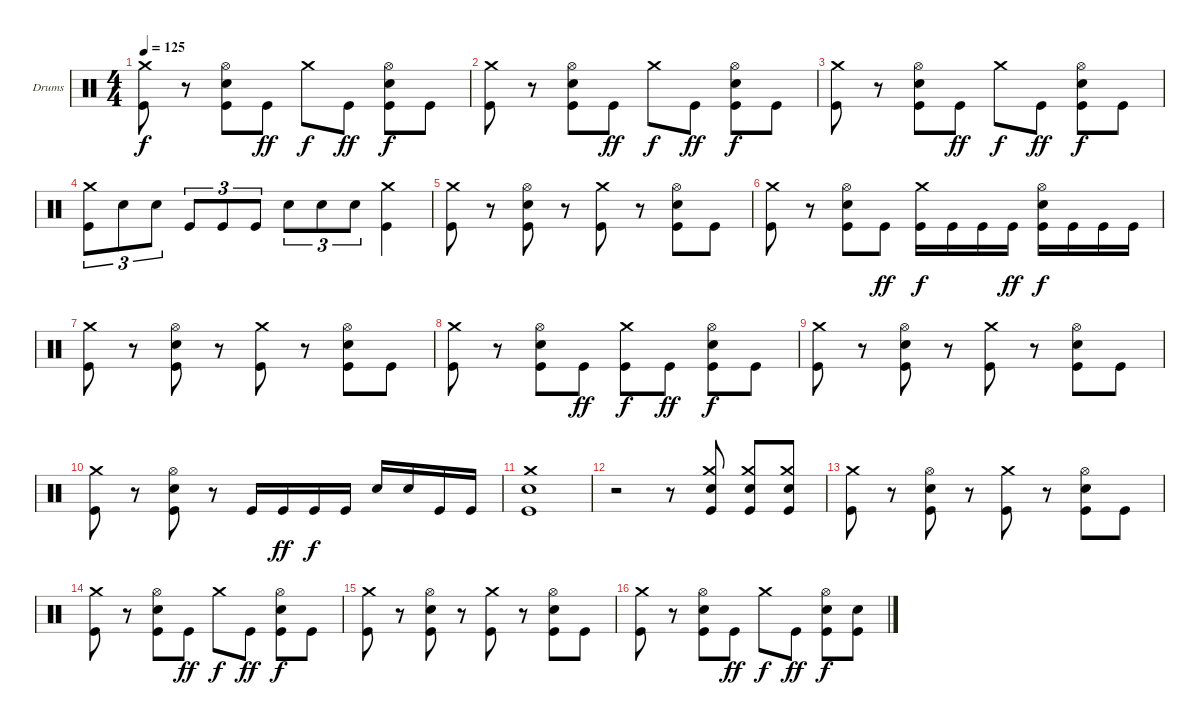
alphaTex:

\defaultSystemsLayout 4
\bracketExtendMode groupsimilarinstruments
\firstSystemTrackNameOrientation horizontal
\otherSystemsTrackNameOrientation horizontal
\track ("Drumkit" "Drums") {instrument percussion}
\staff {score}
\articulation defaults
\ts (4 4)
\tempo 125
\clef neutral
\ks c
("Kick (hit)" "Crash medium (hit)").8{dy f} r.8 ("Kick (hit)" "Snare (hit) 2" "Hi-Hat (open)").8 "Kick (hit)".8{dy ff} "Crash medium (hit)".8{dy f} "Kick (hit)".8{dy ff} ("Kick (hit)" "Snare (hit) 2" "Hi-Hat (open)").8{dy f} "Kick (hit)".8 |
("Kick (hit)" "Crash medium (hit)").8 r.8 ("Kick (hit)" "Snare (hit) 2" "Hi-Hat (open)").8 "Kick (hit)".8{dy ff} "Crash medium (hit)".8{dy f} "Kick (hit)".8{dy ff} ("Kick (hit)" "Snare (hit) 2" "Hi-Hat (open)").8{dy f} "Kick (hit)".8 |
("Kick (hit)" "Crash medium (hit)").8 r.8 ("Kick (hit)" "Snare (hit) 2" "Hi-Hat (open)").8 "Kick (hit)".8{dy ff} "Crash medium (hit)".8{dy f} "Kick (hit)".8{dy ff} ("Kick (hit)" "Snare (hit) 2" "Hi-Hat (open)").8{dy f} "Kick (hit)".8 |
("Kick (hit)" "Crash medium (hit)").8{tu (3 2)} "Snare (hit) 2".8{tu (3 2)} "Snare (hit) 2".8{tu (3 2)} "Kick (hit)".8{tu (3 2)} "Kick (hit)".8{tu (3 2)} "Kick (hit)".8{tu (3 2)} "Snare (hit) 2".8{tu (3 2)} "Snare (hit) 2".8{tu (3 2)} "Snare (hit) 2".8{tu (3 2)} ("Kick (hit)" "Crash medium (hit)").4 |
("Kick (hit)" "Crash medium (hit)").8 r.8 ("Kick (hit)" "Snare (hit) 2" "Hi-Hat (open)").8 r.8 ("Kick (hit)" "Crash medium (hit)").8 r.8 ("Kick (hit)" "Snare (hit) 2" "Hi-Hat (open)").8 "Kick (hit)".8 |
("Kick (hit)" "Crash medium (hit)").8 r.8 ("Kick (hit)" "Snare (hit) 2" "Hi-Hat (open)").8 "Kick (hit)".8{dy ff} ("Kick (hit)" "Crash medium (hit)").16{dy f} "Kick (hit)".16 "Kick (hit)".16 "Kick (hit)".16{dy ff} ("Kick (hit)" "Snare (hit) 2" "Hi-Hat (open)").16{dy f} "Kick (hit)".16 "Kick (hit)".16 "Kick (hit)".16 |
("Kick (hit)" "Crash medium (hit)").8 r.8 ("Kick (hit)" "Snare (hit) 2" "Hi-Hat (open)").8 r.8 ("Kick (hit)" "Crash medium (hit)").8 r.8 ("Kick (hit)" "Snare (hit) 2" "Hi-Hat (open)").8 "Kick (hit)".8 |
("Kick (hit)" "Crash medium (hit)").8 r.8 ("Kick (hit)" "Snare (hit) 2" "Hi-Hat (open)").8 "Kick (hit)".8{dy ff} ("Kick (hit)" "Crash medium (hit)").8{dy f} "Kick (hit)".8{dy ff} ("Kick (hit)" "Snare (hit) 2" "Hi-Hat (open)").8{dy f} "Kick (hit)".8 |
("Kick (hit)" "Crash medium (hit)").8 r.8 ("Kick (hit)" "Snare (hit) 2" "Hi-Hat (open)").8 r.8 ("Kick (hit)" "Crash medium (hit)").8 r.8 ("Kick (hit)" "Snare (hit) 2" "Hi-Hat (open)").8 "Kick (hit)".8 |
("Kick (hit)" "Crash medium (hit)").8 r.8 ("Kick (hit)" "Snare (hit) 2" "Hi-Hat (open)").8 r.8 "Kick (hit)".16 "Kick (hit)".16{dy ff} "Kick (hit)".16{dy f} "Kick (hit)".16 "Snare (hit) 2".16 "Snare (hit) 2".16 "Kick (hit)".16 "Kick (hit)".16 |
("Kick (hit)" "Snare (hit) 2" "Crash medium (hit)").1 |
r.2 r.8 ("Kick (hit)" "Snare (hit) 2" "Crash medium (hit)").8 ("Kick (hit)" "Snare (hit) 2" "Crash medium (hit)").8 ("Kick (hit)" "Snare (hit) 2" "Crash medium (hit)").8 |
("Kick (hit)" "Crash medium (hit)").8 r.8 ("Kick (hit)" "Snare (hit) 2" "Hi-Hat (open)").8 r.8 ("Kick (hit)" "Crash medium (hit)").8 r.8 ("Kick (hit)" "Snare (hit) 2" "Hi-Hat (open)").8 "Kick (hit)".8 |
("Kick (hit)" "Crash medium (hit)").8 r.8 ("Kick (hit)" "Snare (hit) 2" "Hi-Hat (open)").8 "Kick (hit)".8{dy ff} "Crash medium (hit)".8{dy f} "Kick (hit)".8{dy ff} ("Kick (hit)" "Snare (hit) 2" "Hi-Hat (open)").8{dy f} "Kick (hit)".8 |
("Kick (hit)" "Crash medium (hit)").8 r.8 ("Kick (hit)" "Snare (hit) 2" "Hi-Hat (open)").8 r.8 ("Kick (hit)" "Crash medium (hit)").8 r.8 ("Kick (hit)" "Snare (hit) 2" "Hi-Hat (open)").8 "Kick (hit)".8 |
("Kick (hit)" "Crash medium (hit)").8 r.8 ("Kick (hit)" "Snare (hit) 2" "Hi-Hat (open)").8 "Kick (hit)".8{dy ff} "Crash medium (hit)".8{dy f} "Kick (hit)".8{dy ff} ("Kick (hit)" "Snare (hit) 2" "Hi-Hat (open)").8{dy f} ("Kick (hit)" "Snare (hit) 2").8
